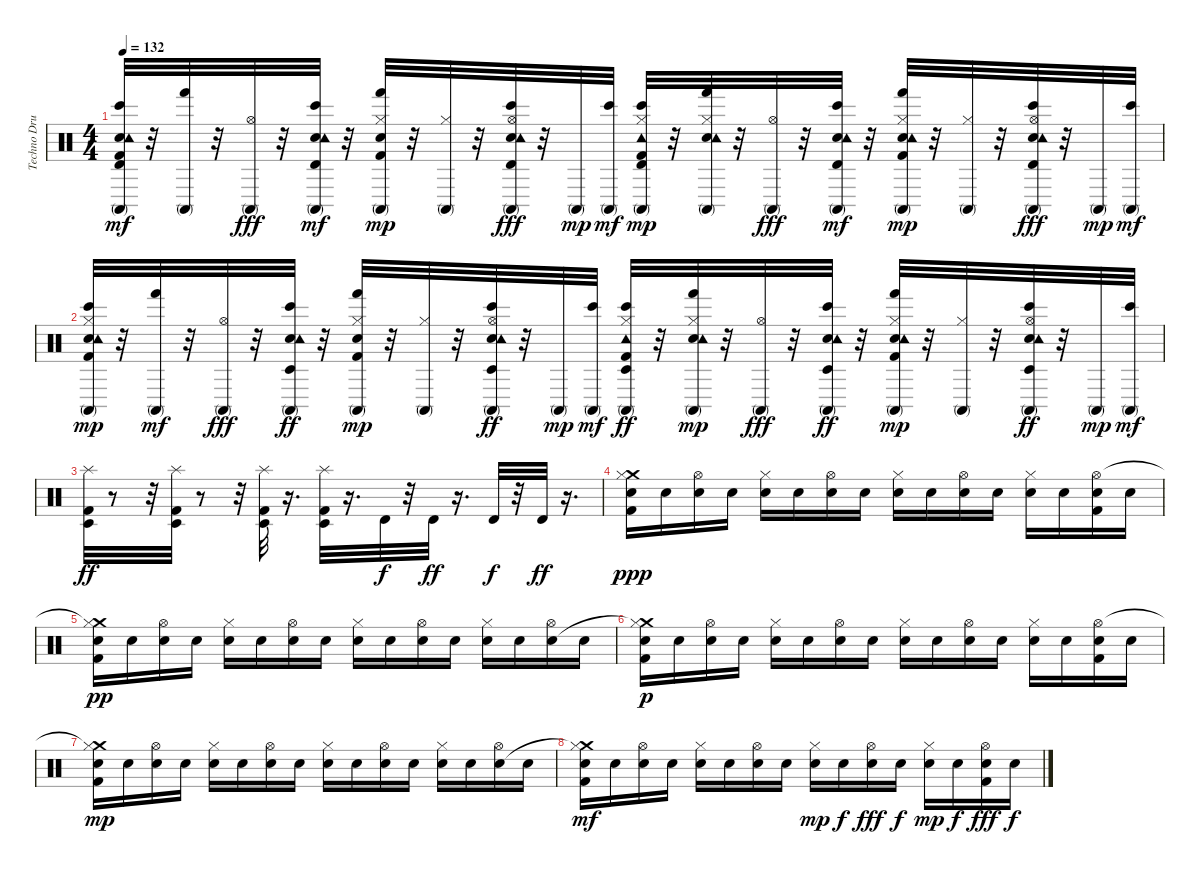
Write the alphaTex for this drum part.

\track ("Techno Drums" "Techno Dru") {instrument percussion}
\staff {score}
\articulation defaults
\ts (4 4)
\tempo 132
\clef neutral
\ks c
("Kick (hit) 2" "Hand Clap (hit)" "Tambourine (hit)" "Conga high (mute)" "Bongo High (hit)" "Timbale high (hit)").32{dy mf} r.32 ("Conga high (mute)" "Hand (hit)").32 r.32 ("Conga high (mute)" "Hi-Hat (open)").32{dy fff} r.32 ("Hand Clap (hit)" "Tambourine (hit)" "Conga high (mute)" "Bongo High (hit)" "Timbale high (hit)").32{dy mf} r.32 ("Kick (hit) 2" "Hand Clap (hit)" "Conga high (mute)" "Hand (hit)" "Hi-Hat (closed)").32{dy mp} r.32 ("Conga high (mute)" "Hi-Hat (closed)").32 r.32 ("Hand Clap (hit)" "Tambourine (hit)" "Conga high (mute)" "Bongo High (hit)" "Timbale high (hit)" "Hi-Hat (open)").32{dy fff} r.32 "Conga high (mute)".32{dy mp} ("Conga high (mute)" "Bongo High (hit)").32{dy mf} ("Kick (hit) 2" "Tambourine (hit)" "Conga high (mute)" "Bongo High (hit)" "Timbale high (hit)" "Hi-Hat (closed)").32{dy mp} r.32 ("Hand Clap (hit)" "Tambourine (hit)" "Conga high (mute)" "Hand (hit)" "Hi-Hat (closed)").32 r.32 ("Conga high (mute)" "Hi-Hat (open)").32{dy fff} r.32 ("Hand Clap (hit)" "Tambourine (hit)" "Conga high (mute)" "Bongo High (hit)" "Timbale high (hit)").32{dy mf} r.32 ("Kick (hit) 2" "Hand Clap (hit)" "Tambourine (hit)" "Conga high (mute)" "Hand (hit)" "Hi-Hat (closed)").32{dy mp} r.32 ("Conga high (mute)" "Hi-Hat (closed)").32 r.32 ("Hand Clap (hit)" "Tambourine (hit)" "Conga high (mute)" "Bongo High (hit)" "Timbale high (hit)" "Hi-Hat (open)").32{dy fff} r.32 "Conga high (mute)".32{dy mp} ("Conga high (mute)" "Bongo High (hit)").32{dy mf} |
("Kick (hit) 2" "Hand Clap (hit)" "Tambourine (hit)" "Conga high (mute)" "Bongo High (hit)" "Hi-Hat (closed)").32{dy mp} r.32 ("Conga high (mute)" "Hand (hit)").32{dy mf} r.32 ("Conga high (mute)" "Hi-Hat (open)").32{dy fff} r.32 ("Hand Clap (hit)" "Tambourine (hit)" "Conga high (mute)" "Bongo High (hit)" "Timbale low (hit)").32{dy ff} r.32 ("Kick (hit) 2" "Hand Clap (hit)" "Conga high (mute)" "Hand (hit)" "Hi-Hat (closed)").32{dy mp} r.32 ("Conga high (mute)" "Hi-Hat (closed)").32 r.32 ("Hand Clap (hit)" "Tambourine (hit)" "Conga high (mute)" "Bongo High (hit)" "Hi-Hat (open)" "Timbale low (hit)").32{dy ff} r.32 "Conga high (mute)".32{dy mp} ("Conga high (mute)" "Bongo High (hit)").32{dy mf} ("Kick (hit) 2" "Tambourine (hit)" "Conga high (mute)" "Bongo High (hit)" "Hi-Hat (closed)" "Timbale low (hit)").32{dy ff} r.32 ("Hand Clap (hit)" "Tambourine (hit)" "Conga high (mute)" "Hand (hit)" "Hi-Hat (closed)").32{dy mp} r.32 ("Conga high (mute)" "Hi-Hat (open)").32{dy fff} r.32 ("Hand Clap (hit)" "Tambourine (hit)" "Conga high (mute)" "Bongo High (hit)" "Timbale low (hit)").32{dy ff} r.32 ("Kick (hit) 2" "Hand Clap (hit)" "Tambourine (hit)" "Conga high (mute)" "Hand (hit)" "Hi-Hat (closed)").32{dy mp} r.32 ("Conga high (mute)" "Hi-Hat (closed)").32 r.32 ("Hand Clap (hit)" "Tambourine (hit)" "Conga high (mute)" "Bongo High (hit)" "Hi-Hat (open)" "Timbale low (hit)").32{dy ff} r.32 "Conga high (mute)".32{dy mp} ("Conga high (mute)" "Bongo High (hit)").32{dy mf} |
("Kick (hit) 2" "Timbale low (hit)" "Splash (hit)").32{dy ff} r.8 r.32 ("Kick (hit) 2" "Timbale low (hit)" "Splash (hit)").32 r.8 r.32 ("Kick (hit) 2" "Timbale low (hit)" "Splash (hit)").32 r.16{d} ("Timbale low (hit)" "Splash (hit)" "Kick (hit) 2").32 r.16{d} "Timbale high (hit)".32{dy f} r.32 "Timbale high (hit)".32{dy ff} r.16{d} "Timbale high (hit)".32{dy f} r.32 "Timbale high (hit)".32{dy ff} r.16{d} |
("Kick (hit) 2" "Crash medium (hit)" "Hi-Hat (closed)" "Snare (hit) 2").16{dy ppp} "Snare (hit) 2".16 ("Hi-Hat (open)" "Snare (hit) 2").16 "Snare (hit) 2".16 ("Hi-Hat (closed)" "Snare (hit) 2").16 "Snare (hit) 2".16 ("Hi-Hat (open)" "Snare (hit) 2").16 "Snare (hit) 2".16 ("Hi-Hat (closed)" "Snare (hit) 2").16 "Snare (hit) 2".16 ("Hi-Hat (open)" "Snare (hit) 2").16 "Snare (hit) 2".16 ("Hi-Hat (closed)" "Snare (hit) 2").16 "Snare (hit) 2".16 ("Kick (hit) 2" "Hi-Hat (open)" "Snare (hit) 2").16 "Snare (hit) 2".16 |
("Kick (hit) 2" "Crash medium (hit)"{t} "Hi-Hat (closed)" "Snare (hit) 2").16{dy pp} "Snare (hit) 2".16 ("Hi-Hat (open)" "Snare (hit) 2").16 "Snare (hit) 2".16 ("Hi-Hat (closed)" "Snare (hit) 2").16 "Snare (hit) 2".16 ("Hi-Hat (open)" "Snare (hit) 2").16 "Snare (hit) 2".16 ("Hi-Hat (closed)" "Snare (hit) 2").16 "Snare (hit) 2".16 ("Hi-Hat (open)" "Snare (hit) 2").16 "Snare (hit) 2".16 ("Hi-Hat (closed)" "Snare (hit) 2").16 "Snare (hit) 2".16 ("Hi-Hat (open)" "Snare (hit) 2").16 "Snare (hit) 2".16 |
("Kick (hit) 2" "Crash medium (hit)"{t} "Hi-Hat (closed)" "Snare (hit) 2").16{dy p} "Snare (hit) 2".16 ("Hi-Hat (open)" "Snare (hit) 2").16 "Snare (hit) 2".16 ("Hi-Hat (closed)" "Snare (hit) 2").16 "Snare (hit) 2".16 ("Hi-Hat (open)" "Snare (hit) 2").16 "Snare (hit) 2".16 ("Hi-Hat (closed)" "Snare (hit) 2").16 "Snare (hit) 2".16 ("Hi-Hat (open)" "Snare (hit) 2").16 "Snare (hit) 2".16 ("Hi-Hat (closed)" "Snare (hit) 2").16 "Snare (hit) 2".16 ("Kick (hit) 2" "Hi-Hat (open)" "Snare (hit) 2").16 "Snare (hit) 2".16 |
("Kick (hit) 2" "Crash medium (hit)"{t} "Hi-Hat (closed)" "Snare (hit) 2").16{dy mp} "Snare (hit) 2".16 ("Hi-Hat (open)" "Snare (hit) 2").16 "Snare (hit) 2".16 ("Hi-Hat (closed)" "Snare (hit) 2").16 "Snare (hit) 2".16 ("Hi-Hat (open)" "Snare (hit) 2").16 "Snare (hit) 2".16 ("Hi-Hat (closed)" "Snare (hit) 2").16 "Snare (hit) 2".16 ("Hi-Hat (open)" "Snare (hit) 2").16 "Snare (hit) 2".16 ("Hi-Hat (closed)" "Snare (hit) 2").16 "Snare (hit) 2".16 ("Hi-Hat (open)" "Snare (hit) 2").16 "Snare (hit) 2".16 |
("Kick (hit) 2" "Crash medium (hit)"{t} "Hi-Hat (closed)" "Snare (hit) 2").16{dy mf} "Snare (hit) 2".16 ("Hi-Hat (open)" "Snare (hit) 2").16 "Snare (hit) 2".16 ("Hi-Hat (closed)" "Snare (hit) 2").16 "Snare (hit) 2".16 ("Hi-Hat (open)" "Snare (hit) 2").16 "Snare (hit) 2".16 ("Hi-Hat (closed)" "Snare (hit) 2").16{dy mp} "Snare (hit) 2".16{dy f} ("Hi-Hat (open)" "Snare (hit) 2").16{dy fff} "Snare (hit) 2".16{dy f} ("Hi-Hat (closed)" "Snare (hit) 2").16{dy mp} "Snare (hit) 2".16{dy f} ("Kick (hit) 2" "Hi-Hat (open)" "Snare (hit) 2").16{dy fff} "Snare (hit) 2".16{dy f}
